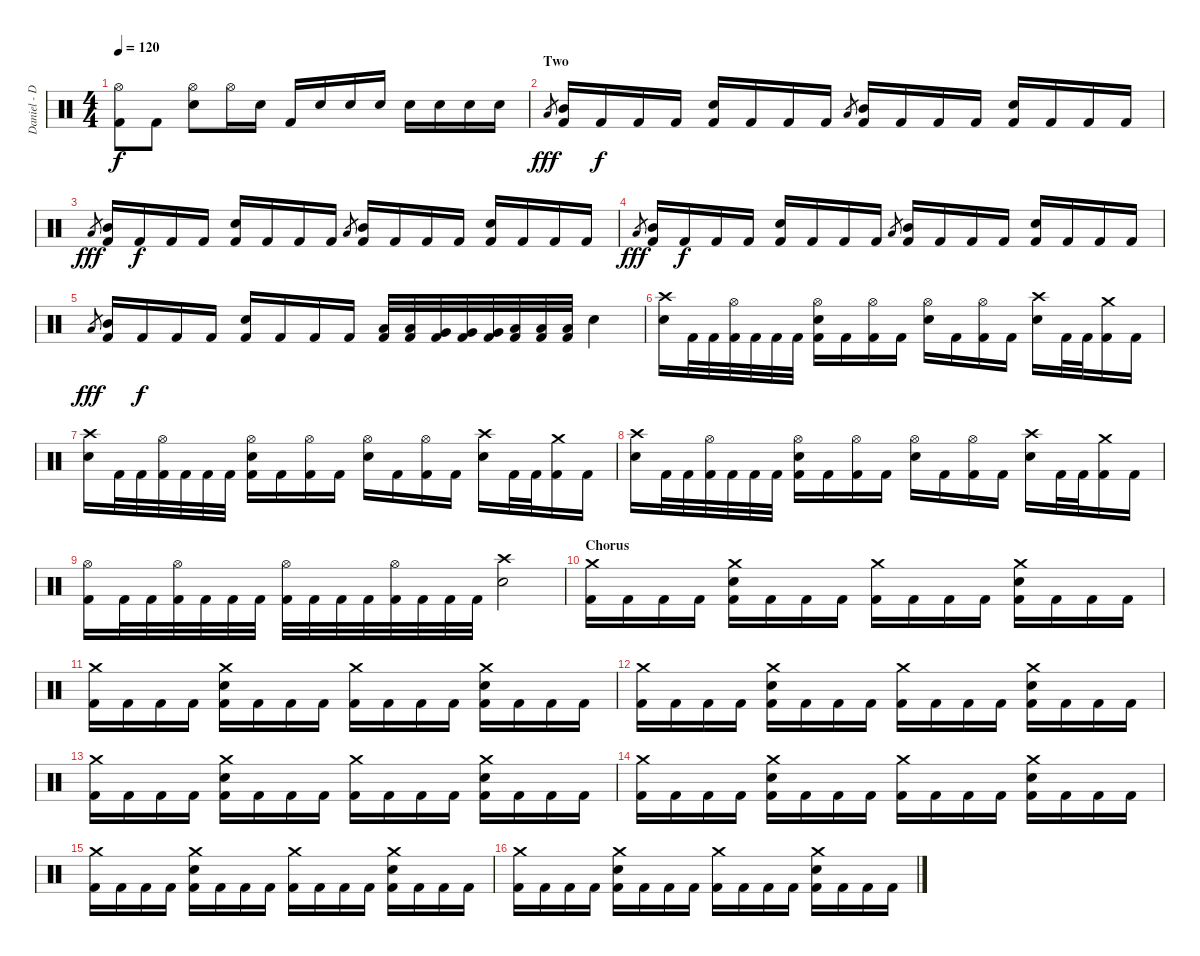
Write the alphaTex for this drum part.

\track ("Daniel - Drums" "Daniel - D") {instrument percussion}
\staff {score}
\articulation defaults
\ts (4 4)
\tempo 120
\clef neutral
\ks c
("Hi-Hat (open)" "Kick (hit) 2").8{dy f} "Kick (hit) 2".8 ("Hi-Hat (open)" "Electric Snare (hit)").8 "Hi-Hat (open)".16 "Electric Snare (hit)".16 "Kick (hit) 2".16 "Electric Snare (hit)".16 "Electric Snare (hit)".16 "Electric Snare (hit)".16 "Electric Snare (hit)".16 "Electric Snare (hit)".16 "Electric Snare (hit)".16 "Electric Snare (hit)".16 |
\section ("" "Two")
"Low Tom (hit)".8{gr dy fff} ("Mid Tom (hit)" "Kick (hit) 2").16 "Kick (hit) 2".16{dy f} "Kick (hit) 2".16 "Kick (hit) 2".16 ("Electric Snare (hit)" "Kick (hit) 2").16 "Kick (hit) 2".16 "Kick (hit) 2".16 "Kick (hit) 2".16 "Low Tom (hit)".8{gr} ("Mid Tom (hit)" "Kick (hit) 2").16 "Kick (hit) 2".16 "Kick (hit) 2".16 "Kick (hit) 2".16 ("Electric Snare (hit)" "Kick (hit) 2").16 "Kick (hit) 2".16 "Kick (hit) 2".16 "Kick (hit) 2".16 |
"Low Tom (hit)".8{gr dy fff} ("Mid Tom (hit)" "Kick (hit) 2").16 "Kick (hit) 2".16{dy f} "Kick (hit) 2".16 "Kick (hit) 2".16 ("Electric Snare (hit)" "Kick (hit) 2").16 "Kick (hit) 2".16 "Kick (hit) 2".16 "Kick (hit) 2".16 "Low Tom (hit)".8{gr} ("Mid Tom (hit)" "Kick (hit) 2").16 "Kick (hit) 2".16 "Kick (hit) 2".16 "Kick (hit) 2".16 ("Electric Snare (hit)" "Kick (hit) 2").16 "Kick (hit) 2".16 "Kick (hit) 2".16 "Kick (hit) 2".16 |
"Low Tom (hit)".8{gr dy fff} ("Mid Tom (hit)" "Kick (hit) 2").16 "Kick (hit) 2".16{dy f} "Kick (hit) 2".16 "Kick (hit) 2".16 ("Electric Snare (hit)" "Kick (hit) 2").16 "Kick (hit) 2".16 "Kick (hit) 2".16 "Kick (hit) 2".16 "Low Tom (hit)".8{gr} ("Mid Tom (hit)" "Kick (hit) 2").16 "Kick (hit) 2".16 "Kick (hit) 2".16 "Kick (hit) 2".16 ("Electric Snare (hit)" "Kick (hit) 2").16 "Kick (hit) 2".16 "Kick (hit) 2".16 "Kick (hit) 2".16 |
"Low Tom (hit)".8{gr dy fff} ("Mid Tom (hit)" "Kick (hit) 2").16 "Kick (hit) 2".16{dy f} "Kick (hit) 2".16 "Kick (hit) 2".16 ("Electric Snare (hit)" "Kick (hit) 2").16 "Kick (hit) 2".16 "Kick (hit) 2".16 "Kick (hit) 2".16 ("Low Tom (hit)" "Kick (hit) 2").32 ("Low Tom (hit)" "Kick (hit) 2").32 ("Very Low Tom (hit)" "Kick (hit) 2").32 ("Very Low Tom (hit)" "Kick (hit) 2").32 ("Very Low Tom (hit)" "Kick (hit) 2").32 ("Low Floor Tom (hit)" "Kick (hit) 2").32 ("Low Floor Tom (hit)" "Kick (hit) 2").32 ("Low Floor Tom (hit)" "Kick (hit) 2").32 "Electric Snare (hit)".4 |
("Crash high (hit)" "Electric Snare (hit)").16 "Kick (hit) 2".32 "Kick (hit) 2".32 ("Hi-Hat (open)" "Kick (hit) 2").32 "Kick (hit) 2".32 "Kick (hit) 2".32 "Kick (hit) 2".32 ("Hi-Hat (open)" "Electric Snare (hit)" "Kick (hit) 2").16 "Kick (hit) 2".16 ("Hi-Hat (open)" "Kick (hit) 2").16 "Kick (hit) 2".16 ("Hi-Hat (open)" "Electric Snare (hit)").16 "Kick (hit) 2".16 ("Hi-Hat (open)" "Kick (hit) 2").16 "Kick (hit) 2".16 ("Crash high (hit)" "Electric Snare (hit)").16 "Kick (hit) 2".32 "Kick (hit) 2".32 ("Crash medium (hit)" "Kick (hit) 2").16 "Kick (hit) 2".16 |
("Crash high (hit)" "Electric Snare (hit)").16 "Kick (hit) 2".32 "Kick (hit) 2".32 ("Hi-Hat (open)" "Kick (hit) 2").32 "Kick (hit) 2".32 "Kick (hit) 2".32 "Kick (hit) 2".32 ("Hi-Hat (open)" "Electric Snare (hit)" "Kick (hit) 2").16 "Kick (hit) 2".16 ("Hi-Hat (open)" "Kick (hit) 2").16 "Kick (hit) 2".16 ("Hi-Hat (open)" "Electric Snare (hit)").16 "Kick (hit) 2".16 ("Hi-Hat (open)" "Kick (hit) 2").16 "Kick (hit) 2".16 ("Crash high (hit)" "Electric Snare (hit)").16 "Kick (hit) 2".32 "Kick (hit) 2".32 ("Crash medium (hit)" "Kick (hit) 2").16 "Kick (hit) 2".16 |
("Crash high (hit)" "Electric Snare (hit)").16 "Kick (hit) 2".32 "Kick (hit) 2".32 ("Hi-Hat (open)" "Kick (hit) 2").32 "Kick (hit) 2".32 "Kick (hit) 2".32 "Kick (hit) 2".32 ("Hi-Hat (open)" "Electric Snare (hit)" "Kick (hit) 2").16 "Kick (hit) 2".16 ("Hi-Hat (open)" "Kick (hit) 2").16 "Kick (hit) 2".16 ("Hi-Hat (open)" "Electric Snare (hit)").16 "Kick (hit) 2".16 ("Hi-Hat (open)" "Kick (hit) 2").16 "Kick (hit) 2".16 ("Crash high (hit)" "Electric Snare (hit)").16 "Kick (hit) 2".32 "Kick (hit) 2".32 ("Crash medium (hit)" "Kick (hit) 2").16 "Kick (hit) 2".16 |
("Hi-Hat (open)" "Kick (hit) 2").16 "Kick (hit) 2".32 "Kick (hit) 2".32 ("Hi-Hat (open)" "Kick (hit) 2").32 "Kick (hit) 2".32 "Kick (hit) 2".32 "Kick (hit) 2".32 ("Hi-Hat (open)" "Kick (hit) 2").32 "Kick (hit) 2".32 "Kick (hit) 2".32 "Kick (hit) 2".32 ("Hi-Hat (open)" "Kick (hit) 2").32 "Kick (hit) 2".32 "Kick (hit) 2".32 "Kick (hit) 2".32 ("Crash high (hit)" "Electric Snare (hit)").2 |
\section ("" "Chorus")
("Crash medium (hit)" "Kick (hit) 2").16 "Kick (hit) 2".16 "Kick (hit) 2".16 "Kick (hit) 2".16 ("Crash medium (hit)" "Electric Snare (hit)" "Kick (hit) 2").16 "Kick (hit) 2".16 "Kick (hit) 2".16 "Kick (hit) 2".16 ("Crash medium (hit)" "Kick (hit) 2").16 "Kick (hit) 2".16 "Kick (hit) 2".16 "Kick (hit) 2".16 ("Crash medium (hit)" "Electric Snare (hit)" "Kick (hit) 2").16 "Kick (hit) 2".16 "Kick (hit) 2".16 "Kick (hit) 2".16 |
("Crash medium (hit)" "Kick (hit) 2").16 "Kick (hit) 2".16 "Kick (hit) 2".16 "Kick (hit) 2".16 ("Crash medium (hit)" "Electric Snare (hit)" "Kick (hit) 2").16 "Kick (hit) 2".16 "Kick (hit) 2".16 "Kick (hit) 2".16 ("Crash medium (hit)" "Kick (hit) 2").16 "Kick (hit) 2".16 "Kick (hit) 2".16 "Kick (hit) 2".16 ("Crash medium (hit)" "Electric Snare (hit)" "Kick (hit) 2").16 "Kick (hit) 2".16 "Kick (hit) 2".16 "Kick (hit) 2".16 |
("Crash medium (hit)" "Kick (hit) 2").16 "Kick (hit) 2".16 "Kick (hit) 2".16 "Kick (hit) 2".16 ("Crash medium (hit)" "Electric Snare (hit)" "Kick (hit) 2").16 "Kick (hit) 2".16 "Kick (hit) 2".16 "Kick (hit) 2".16 ("Crash medium (hit)" "Kick (hit) 2").16 "Kick (hit) 2".16 "Kick (hit) 2".16 "Kick (hit) 2".16 ("Crash medium (hit)" "Electric Snare (hit)" "Kick (hit) 2").16 "Kick (hit) 2".16 "Kick (hit) 2".16 "Kick (hit) 2".16 |
("Crash medium (hit)" "Kick (hit) 2").16 "Kick (hit) 2".16 "Kick (hit) 2".16 "Kick (hit) 2".16 ("Crash medium (hit)" "Electric Snare (hit)" "Kick (hit) 2").16 "Kick (hit) 2".16 "Kick (hit) 2".16 "Kick (hit) 2".16 ("Crash medium (hit)" "Kick (hit) 2").16 "Kick (hit) 2".16 "Kick (hit) 2".16 "Kick (hit) 2".16 ("Crash medium (hit)" "Electric Snare (hit)" "Kick (hit) 2").16 "Kick (hit) 2".16 "Kick (hit) 2".16 "Kick (hit) 2".16 |
("Crash medium (hit)" "Kick (hit) 2").16 "Kick (hit) 2".16 "Kick (hit) 2".16 "Kick (hit) 2".16 ("Crash medium (hit)" "Electric Snare (hit)" "Kick (hit) 2").16 "Kick (hit) 2".16 "Kick (hit) 2".16 "Kick (hit) 2".16 ("Crash medium (hit)" "Kick (hit) 2").16 "Kick (hit) 2".16 "Kick (hit) 2".16 "Kick (hit) 2".16 ("Crash medium (hit)" "Electric Snare (hit)" "Kick (hit) 2").16 "Kick (hit) 2".16 "Kick (hit) 2".16 "Kick (hit) 2".16 |
("Crash medium (hit)" "Kick (hit) 2").16 "Kick (hit) 2".16 "Kick (hit) 2".16 "Kick (hit) 2".16 ("Crash medium (hit)" "Electric Snare (hit)" "Kick (hit) 2").16 "Kick (hit) 2".16 "Kick (hit) 2".16 "Kick (hit) 2".16 ("Crash medium (hit)" "Kick (hit) 2").16 "Kick (hit) 2".16 "Kick (hit) 2".16 "Kick (hit) 2".16 ("Crash medium (hit)" "Electric Snare (hit)" "Kick (hit) 2").16 "Kick (hit) 2".16 "Kick (hit) 2".16 "Kick (hit) 2".16 |
("Crash medium (hit)" "Kick (hit) 2").16 "Kick (hit) 2".16 "Kick (hit) 2".16 "Kick (hit) 2".16 ("Crash medium (hit)" "Electric Snare (hit)" "Kick (hit) 2").16 "Kick (hit) 2".16 "Kick (hit) 2".16 "Kick (hit) 2".16 ("Crash medium (hit)" "Kick (hit) 2").16 "Kick (hit) 2".16 "Kick (hit) 2".16 "Kick (hit) 2".16 ("Crash medium (hit)" "Electric Snare (hit)" "Kick (hit) 2").16 "Kick (hit) 2".16 "Kick (hit) 2".16 "Kick (hit) 2".16
